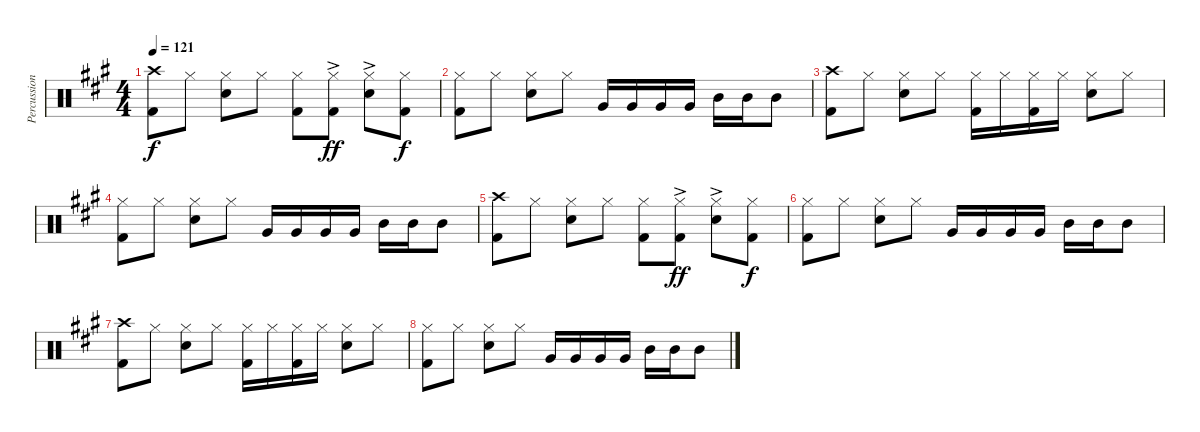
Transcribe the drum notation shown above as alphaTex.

\track ("Percussion" "Percussion") {instrument percussion}
\staff {score}
\articulation defaults
\ts (4 4)
\tempo 121
\clef neutral
\ks a
("Crash high (hit)" "Kick (hit) 2").8{dy f} "Hi-Hat (closed)".8 ("Hi-Hat (closed)" "Snare (hit) 2").8 "Hi-Hat (closed)".8 ("Hi-Hat (closed)" "Kick (hit) 2").8 ("Hi-Hat (closed)"{ac} "Kick (hit) 2").8{dy ff} ("Hi-Hat (closed)"{ac} "Snare (hit) 2").8 ("Hi-Hat (closed)" "Kick (hit) 2").8{dy f} |
("Hi-Hat (closed)" "Kick (hit) 2").8 "Hi-Hat (closed)".8 ("Hi-Hat (closed)" "Snare (hit) 2").8 "Hi-Hat (closed)".8 "Very Low Tom (hit)".16 "Very Low Tom (hit)".16 "Very Low Tom (hit)".16 "Very Low Tom (hit)".16 "Mid Tom (hit)".16 "Mid Tom (hit)".16 "Mid Tom (hit)".8 |
("Crash high (hit)" "Kick (hit) 2").8 "Hi-Hat (closed)".8 ("Hi-Hat (closed)" "Snare (hit) 2").8 "Hi-Hat (closed)".8 ("Hi-Hat (closed)" "Kick (hit) 2").16 "Hi-Hat (closed)".16 ("Hi-Hat (closed)" "Kick (hit) 2").16 "Hi-Hat (closed)".16 ("Hi-Hat (closed)" "Snare (hit) 2").8 "Hi-Hat (closed)".8 |
("Hi-Hat (closed)" "Kick (hit) 2").8 "Hi-Hat (closed)".8 ("Hi-Hat (closed)" "Snare (hit) 2").8 "Hi-Hat (closed)".8 "Very Low Tom (hit)".16 "Very Low Tom (hit)".16 "Very Low Tom (hit)".16 "Very Low Tom (hit)".16 "Mid Tom (hit)".16 "Mid Tom (hit)".16 "Mid Tom (hit)".8 |
("Crash high (hit)" "Kick (hit) 2").8 "Hi-Hat (closed)".8 ("Hi-Hat (closed)" "Snare (hit) 2").8 "Hi-Hat (closed)".8 ("Hi-Hat (closed)" "Kick (hit) 2").8 ("Hi-Hat (closed)"{ac} "Kick (hit) 2").8{dy ff} ("Hi-Hat (closed)"{ac} "Snare (hit) 2").8 ("Hi-Hat (closed)" "Kick (hit) 2").8{dy f} |
("Hi-Hat (closed)" "Kick (hit) 2").8 "Hi-Hat (closed)".8 ("Hi-Hat (closed)" "Snare (hit) 2").8 "Hi-Hat (closed)".8 "Very Low Tom (hit)".16 "Very Low Tom (hit)".16 "Very Low Tom (hit)".16 "Very Low Tom (hit)".16 "Mid Tom (hit)".16 "Mid Tom (hit)".16 "Mid Tom (hit)".8 |
("Crash high (hit)" "Kick (hit) 2").8 "Hi-Hat (closed)".8 ("Hi-Hat (closed)" "Snare (hit) 2").8 "Hi-Hat (closed)".8 ("Hi-Hat (closed)" "Kick (hit) 2").16 "Hi-Hat (closed)".16 ("Hi-Hat (closed)" "Kick (hit) 2").16 "Hi-Hat (closed)".16 ("Hi-Hat (closed)" "Snare (hit) 2").8 "Hi-Hat (closed)".8 |
("Hi-Hat (closed)" "Kick (hit) 2").8 "Hi-Hat (closed)".8 ("Hi-Hat (closed)" "Snare (hit) 2").8 "Hi-Hat (closed)".8 "Very Low Tom (hit)".16 "Very Low Tom (hit)".16 "Very Low Tom (hit)".16 "Very Low Tom (hit)".16 "Mid Tom (hit)".16 "Mid Tom (hit)".16 "Mid Tom (hit)".8
